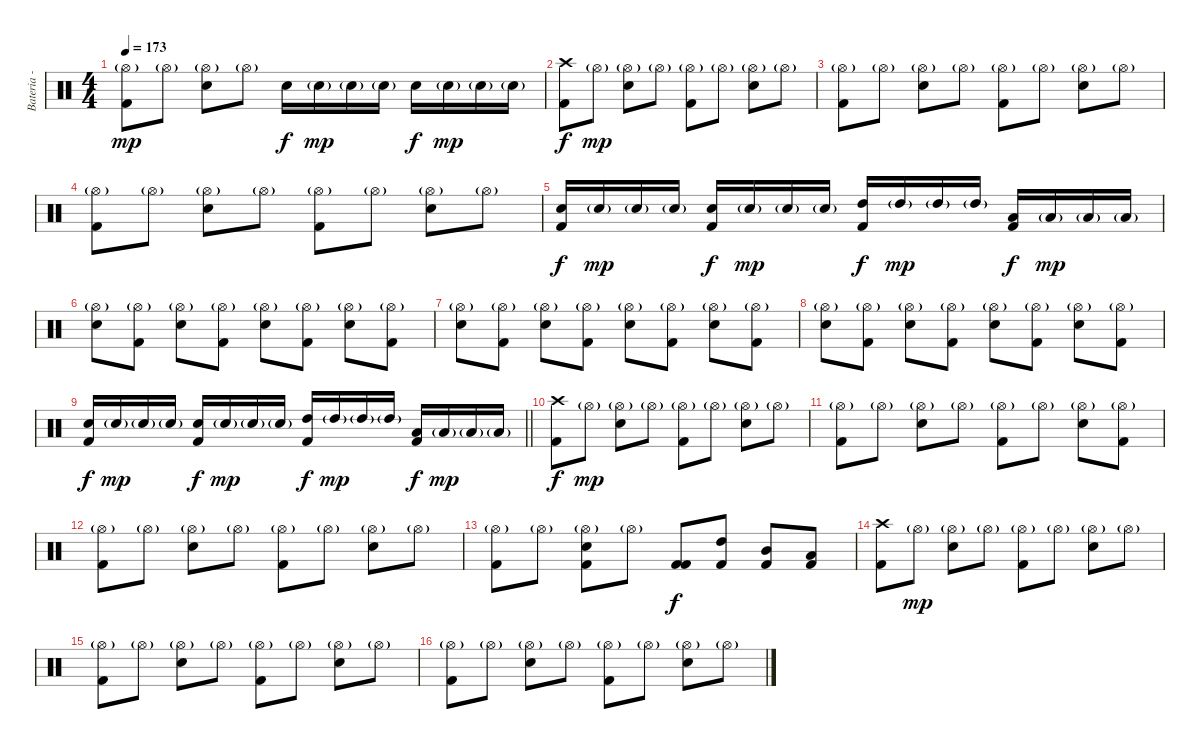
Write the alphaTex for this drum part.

\track ("Bateria - Larzon " "Bateria - ") {instrument percussion}
\staff {score}
\articulation defaults
\ts (4 4)
\tempo 173
\clef neutral
\ks c
("Kick (hit) 2" "Hi-Hat (open)"{g}).8{dy mp} "Hi-Hat (open)"{g}.8 ("Hi-Hat (open)"{g} "Electric Snare (hit)").8 "Hi-Hat (open)"{g}.8 "Electric Snare (hit)".16{dy f} "Electric Snare (hit)"{g}.16{dy mp} "Electric Snare (hit)"{g}.16 "Electric Snare (hit)"{g}.16 "Electric Snare (hit)".16{dy f} "Electric Snare (hit)"{g}.16{dy mp} "Electric Snare (hit)"{g}.16 "Electric Snare (hit)"{g}.16 |
("Kick (hit) 2" "Crash high (hit)").8{dy f} "Hi-Hat (open)"{g}.8{dy mp} ("Hi-Hat (open)"{g} "Electric Snare (hit)").8 "Hi-Hat (open)"{g}.8 ("Kick (hit) 2" "Hi-Hat (open)"{g}).8 "Hi-Hat (open)"{g}.8 ("Hi-Hat (open)"{g} "Electric Snare (hit)").8 "Hi-Hat (open)"{g}.8 |
("Kick (hit) 2" "Hi-Hat (open)"{g}).8 "Hi-Hat (open)"{g}.8 ("Hi-Hat (open)"{g} "Electric Snare (hit)").8 "Hi-Hat (open)"{g}.8 ("Kick (hit) 2" "Hi-Hat (open)"{g}).8 "Hi-Hat (open)"{g}.8 ("Hi-Hat (open)"{g} "Electric Snare (hit)").8 "Hi-Hat (open)"{g}.8 |
("Kick (hit) 2" "Hi-Hat (open)"{g}).8 "Hi-Hat (open)"{g}.8 ("Hi-Hat (open)"{g} "Electric Snare (hit)").8 "Hi-Hat (open)"{g}.8 ("Kick (hit) 2" "Hi-Hat (open)"{g}).8 "Hi-Hat (open)"{g}.8 ("Hi-Hat (open)"{g} "Electric Snare (hit)").8 "Hi-Hat (open)"{g}.8 |
("Electric Snare (hit)" "Kick (hit) 2").16{dy f} "Electric Snare (hit)"{g}.16{dy mp} "Electric Snare (hit)"{g}.16 "Electric Snare (hit)"{g}.16 ("Electric Snare (hit)" "Kick (hit) 2").16{dy f} "Electric Snare (hit)"{g}.16{dy mp} "Electric Snare (hit)"{g}.16 "Electric Snare (hit)"{g}.16 ("High Tom (hit)" "Kick (hit) 2").16{dy f} "High Tom (hit)"{g}.16{dy mp} "High Tom (hit)"{g}.16 "High Tom (hit)"{g}.16 ("Low Tom (hit)" "Kick (hit) 2").16{dy f} "Low Tom (hit)"{g}.16{dy mp} "Low Tom (hit)"{g}.16 "Low Tom (hit)"{g}.16 |
("Electric Snare (hit)" "Hi-Hat (open)"{g}).8 ("Kick (hit) 2" "Hi-Hat (open)"{g}).8 ("Electric Snare (hit)" "Hi-Hat (open)"{g}).8 ("Kick (hit) 2" "Hi-Hat (open)"{g}).8 ("Electric Snare (hit)" "Hi-Hat (open)"{g}).8 ("Kick (hit) 2" "Hi-Hat (open)"{g}).8 ("Electric Snare (hit)" "Hi-Hat (open)"{g}).8 ("Kick (hit) 2" "Hi-Hat (open)"{g}).8 |
("Electric Snare (hit)" "Hi-Hat (open)"{g}).8 ("Kick (hit) 2" "Hi-Hat (open)"{g}).8 ("Electric Snare (hit)" "Hi-Hat (open)"{g}).8 ("Kick (hit) 2" "Hi-Hat (open)"{g}).8 ("Electric Snare (hit)" "Hi-Hat (open)"{g}).8 ("Kick (hit) 2" "Hi-Hat (open)"{g}).8 ("Electric Snare (hit)" "Hi-Hat (open)"{g}).8 ("Kick (hit) 2" "Hi-Hat (open)"{g}).8 |
("Electric Snare (hit)" "Hi-Hat (open)"{g}).8 ("Kick (hit) 2" "Hi-Hat (open)"{g}).8 ("Electric Snare (hit)" "Hi-Hat (open)"{g}).8 ("Kick (hit) 2" "Hi-Hat (open)"{g}).8 ("Electric Snare (hit)" "Hi-Hat (open)"{g}).8 ("Kick (hit) 2" "Hi-Hat (open)"{g}).8 ("Electric Snare (hit)" "Hi-Hat (open)"{g}).8 ("Kick (hit) 2" "Hi-Hat (open)"{g}).8 |
\barLineRight lightlight
("Electric Snare (hit)" "Kick (hit) 2").16{dy f} "Electric Snare (hit)"{g}.16{dy mp} "Electric Snare (hit)"{g}.16 "Electric Snare (hit)"{g}.16 ("Electric Snare (hit)" "Kick (hit) 2").16{dy f} "Electric Snare (hit)"{g}.16{dy mp} "Electric Snare (hit)"{g}.16 "Electric Snare (hit)"{g}.16 ("High Tom (hit)" "Kick (hit) 2").16{dy f} "High Tom (hit)"{g}.16{dy mp} "High Tom (hit)"{g}.16 "High Tom (hit)"{g}.16 ("Low Tom (hit)" "Kick (hit) 2").16{dy f} "Low Tom (hit)"{g}.16{dy mp} "Low Tom (hit)"{g}.16 "Low Tom (hit)"{g}.16 |
("Kick (hit) 2" "Crash high (hit)").8{dy f} "Hi-Hat (open)"{g}.8{dy mp} ("Hi-Hat (open)"{g} "Electric Snare (hit)").8 "Hi-Hat (open)"{g}.8 ("Kick (hit) 2" "Hi-Hat (open)"{g}).8 "Hi-Hat (open)"{g}.8 ("Hi-Hat (open)"{g} "Electric Snare (hit)").8 "Hi-Hat (open)"{g}.8 |
("Kick (hit) 2" "Hi-Hat (open)"{g}).8 "Hi-Hat (open)"{g}.8 ("Hi-Hat (open)"{g} "Electric Snare (hit)").8 "Hi-Hat (open)"{g}.8 ("Kick (hit) 2" "Hi-Hat (open)"{g}).8 "Hi-Hat (open)"{g}.8 ("Hi-Hat (open)"{g} "Electric Snare (hit)").8 ("Kick (hit) 2" "Hi-Hat (open)"{g}).8 |
("Kick (hit) 2" "Hi-Hat (open)"{g}).8 "Hi-Hat (open)"{g}.8 ("Hi-Hat (open)"{g} "Electric Snare (hit)").8 "Hi-Hat (open)"{g}.8 ("Kick (hit) 2" "Hi-Hat (open)"{g}).8 "Hi-Hat (open)"{g}.8 ("Hi-Hat (open)"{g} "Electric Snare (hit)").8 "Hi-Hat (open)"{g}.8 |
("Kick (hit) 2" "Hi-Hat (open)"{g}).8 "Hi-Hat (open)"{g}.8 ("Hi-Hat (open)"{g} "Electric Snare (hit)" "Kick (hit) 2").8 "Hi-Hat (open)"{g}.8 ("Kick (hit) 2" "Kick (hit) 2").8{dy f} ("High Tom (hit)" "Kick (hit) 2").8 ("Mid Tom (hit)" "Kick (hit) 2").8 ("Low Tom (hit)" "Kick (hit) 2").8 |
("Kick (hit) 2" "Crash high (hit)").8 "Hi-Hat (open)"{g}.8{dy mp} ("Hi-Hat (open)"{g} "Electric Snare (hit)").8 "Hi-Hat (open)"{g}.8 ("Kick (hit) 2" "Hi-Hat (open)"{g}).8 "Hi-Hat (open)"{g}.8 ("Hi-Hat (open)"{g} "Electric Snare (hit)").8 "Hi-Hat (open)"{g}.8 |
("Kick (hit) 2" "Hi-Hat (open)"{g}).8 "Hi-Hat (open)"{g}.8 ("Hi-Hat (open)"{g} "Electric Snare (hit)").8 "Hi-Hat (open)"{g}.8 ("Kick (hit) 2" "Hi-Hat (open)"{g}).8 "Hi-Hat (open)"{g}.8 ("Hi-Hat (open)"{g} "Electric Snare (hit)").8 "Hi-Hat (open)"{g}.8 |
("Kick (hit) 2" "Hi-Hat (open)"{g}).8 "Hi-Hat (open)"{g}.8 ("Hi-Hat (open)"{g} "Electric Snare (hit)").8 "Hi-Hat (open)"{g}.8 ("Kick (hit) 2" "Hi-Hat (open)"{g}).8 "Hi-Hat (open)"{g}.8 ("Hi-Hat (open)"{g} "Electric Snare (hit)").8 "Hi-Hat (open)"{g}.8
